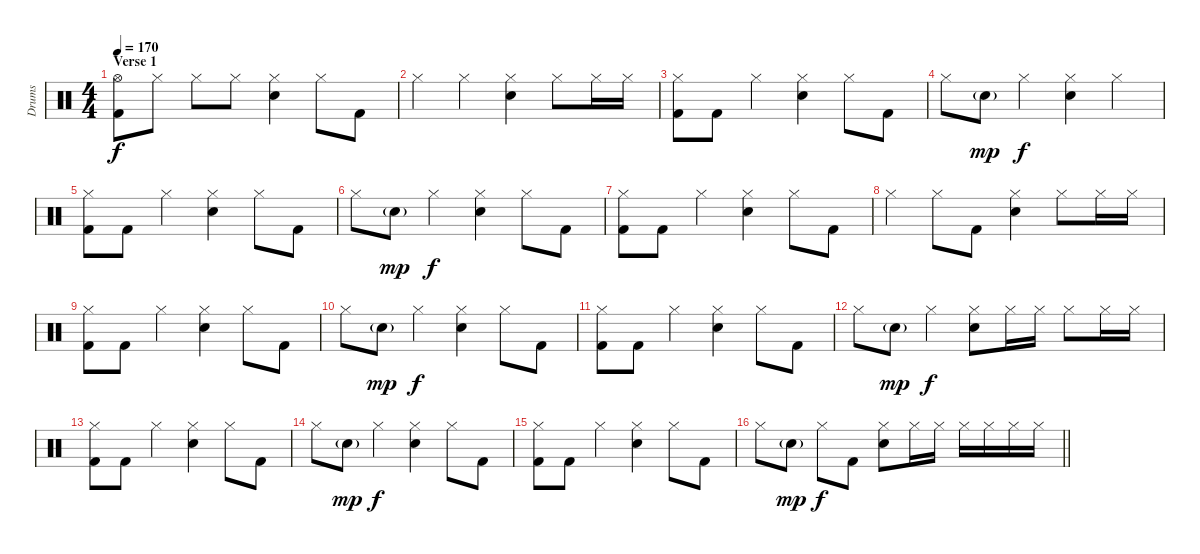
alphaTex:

\track ("Drums" "Drums") {instrument percussion}
\staff {score}
\articulation defaults
\ts (4 4)
\section ("" "Verse 1")
\tempo 170
\clef neutral
\ks c
("Hi-Hat (open)" "Kick (hit) 2").8{dy f} "Hi-Hat (closed)".8 "Hi-Hat (closed)".8 "Hi-Hat (closed)".8 ("Hi-Hat (closed)" "Electric Snare (hit)").4 "Hi-Hat (closed)".8 "Kick (hit) 2".8 |
"Hi-Hat (closed)".4 "Hi-Hat (closed)".4 ("Hi-Hat (closed)" "Electric Snare (hit)").4 "Hi-Hat (closed)".8 "Hi-Hat (closed)".16 "Hi-Hat (closed)".16 |
("Hi-Hat (closed)" "Kick (hit) 2").8 "Kick (hit) 2".8 "Hi-Hat (closed)".4 ("Hi-Hat (closed)" "Electric Snare (hit)").4 "Hi-Hat (closed)".8 "Kick (hit) 2".8 |
"Hi-Hat (closed)".8 "Electric Snare (hit)"{g}.8{dy mp} "Hi-Hat (closed)".4{dy f} ("Hi-Hat (closed)" "Electric Snare (hit)").4 "Hi-Hat (closed)".4 |
("Hi-Hat (closed)" "Kick (hit) 2").8 "Kick (hit) 2".8 "Hi-Hat (closed)".4 ("Hi-Hat (closed)" "Electric Snare (hit)").4 "Hi-Hat (closed)".8 "Kick (hit) 2".8 |
"Hi-Hat (closed)".8 "Electric Snare (hit)"{g}.8{dy mp} "Hi-Hat (closed)".4{dy f} ("Hi-Hat (closed)" "Electric Snare (hit)").4 "Hi-Hat (closed)".8 "Kick (hit) 2".8 |
("Hi-Hat (closed)" "Kick (hit) 2").8 "Kick (hit) 2".8 "Hi-Hat (closed)".4 ("Hi-Hat (closed)" "Electric Snare (hit)").4 "Hi-Hat (closed)".8 "Kick (hit) 2".8 |
"Hi-Hat (closed)".4 "Hi-Hat (closed)".8 "Kick (hit) 2".8 ("Hi-Hat (closed)" "Electric Snare (hit)").4 "Hi-Hat (closed)".8 "Hi-Hat (closed)".16 "Hi-Hat (closed)".16 |
("Hi-Hat (closed)" "Kick (hit) 2").8 "Kick (hit) 2".8 "Hi-Hat (closed)".4 ("Hi-Hat (closed)" "Electric Snare (hit)").4 "Hi-Hat (closed)".8 "Kick (hit) 2".8 |
"Hi-Hat (closed)".8 "Electric Snare (hit)"{g}.8{dy mp} "Hi-Hat (closed)".4{dy f} ("Hi-Hat (closed)" "Electric Snare (hit)").4 "Hi-Hat (closed)".8 "Kick (hit) 2".8 |
("Hi-Hat (closed)" "Kick (hit) 2").8 "Kick (hit) 2".8 "Hi-Hat (closed)".4 ("Hi-Hat (closed)" "Electric Snare (hit)").4 "Hi-Hat (closed)".8 "Kick (hit) 2".8 |
"Hi-Hat (closed)".8 "Electric Snare (hit)"{g}.8{dy mp} "Hi-Hat (closed)".4{dy f} ("Hi-Hat (closed)" "Electric Snare (hit)").8 "Hi-Hat (closed)".16 "Hi-Hat (closed)".16 "Hi-Hat (closed)".8 "Hi-Hat (closed)".16 "Hi-Hat (closed)".16 |
("Hi-Hat (closed)" "Kick (hit) 2").8 "Kick (hit) 2".8 "Hi-Hat (closed)".4 ("Hi-Hat (closed)" "Electric Snare (hit)").4 "Hi-Hat (closed)".8 "Kick (hit) 2".8 |
"Hi-Hat (closed)".8 "Electric Snare (hit)"{g}.8{dy mp} "Hi-Hat (closed)".4{dy f} ("Hi-Hat (closed)" "Electric Snare (hit)").4 "Hi-Hat (closed)".8 "Kick (hit) 2".8 |
("Hi-Hat (closed)" "Kick (hit) 2").8 "Kick (hit) 2".8 "Hi-Hat (closed)".4 ("Hi-Hat (closed)" "Electric Snare (hit)").4 "Hi-Hat (closed)".8 "Kick (hit) 2".8 |
\barLineRight lightlight "Hi-Hat (closed)".8 "Electric Snare (hit)"{g}.8{dy mp} "Hi-Hat (closed)".8{dy f} "Kick (hit) 2".8
("Hi-Hat (closed)" "Electric Snare (hit)").8 "Hi-Hat (closed)".16 "Hi-Hat (closed)".16 "Hi-Hat (closed)".16 "Hi-Hat (closed)".16 "Hi-Hat (closed)".16 "Hi-Hat (closed)".16
